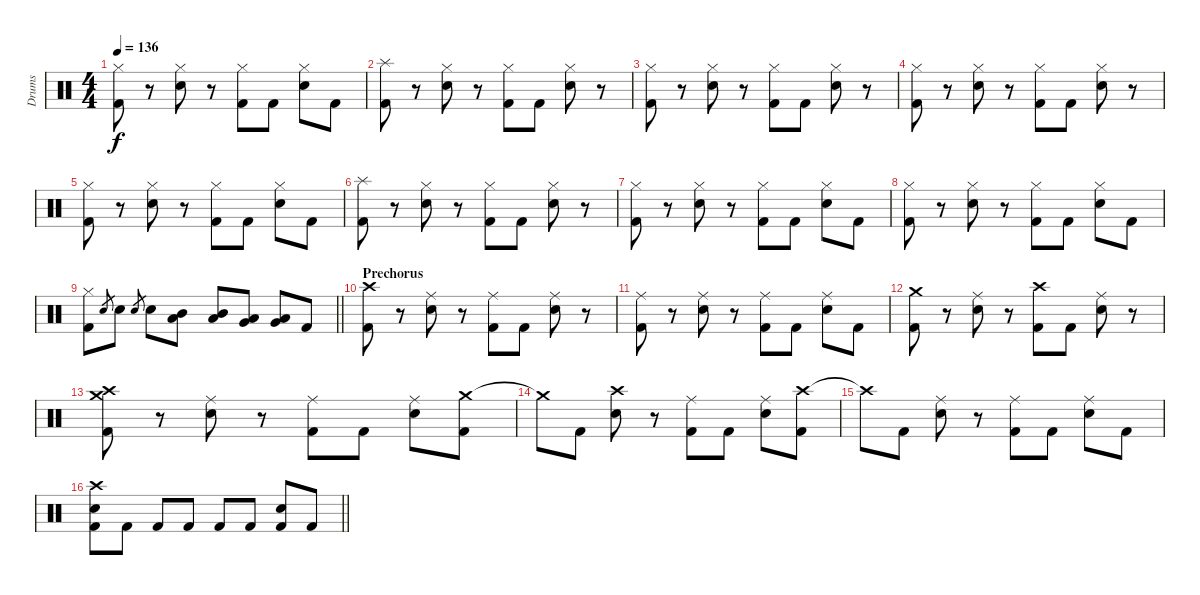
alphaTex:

\track ("Drums" "Drums") {instrument percussion}
\staff {score}
\articulation defaults
\ts (4 4)
\tempo 136
\clef neutral
\ks c
("Hi-Hat (closed)" "Kick (hit) 2").8{dy f} r.8 ("Hi-Hat (closed)" "Electric Snare (hit)").8 r.8 ("Hi-Hat (closed)" "Kick (hit) 2").8 "Kick (hit) 2".8 ("Hi-Hat (closed)" "Electric Snare (hit)").8 "Kick (hit) 2".8 |
("Splash (hit)" "Kick (hit) 2").8 r.8 ("Hi-Hat (closed)" "Electric Snare (hit)").8 r.8 ("Hi-Hat (closed)" "Kick (hit) 2").8 "Kick (hit) 2".8 ("Hi-Hat (closed)" "Electric Snare (hit)").8 r.8 |
("Hi-Hat (closed)" "Kick (hit) 2").8 r.8 ("Hi-Hat (closed)" "Electric Snare (hit)").8 r.8 ("Hi-Hat (closed)" "Kick (hit) 2").8 "Kick (hit) 2".8 ("Hi-Hat (closed)" "Electric Snare (hit)").8 r.8 |
("Hi-Hat (closed)" "Kick (hit) 2").8 r.8 ("Hi-Hat (closed)" "Electric Snare (hit)").8 r.8 ("Hi-Hat (closed)" "Kick (hit) 2").8 "Kick (hit) 2".8 ("Hi-Hat (closed)" "Electric Snare (hit)").8 r.8 |
("Hi-Hat (closed)" "Kick (hit) 2").8 r.8 ("Hi-Hat (closed)" "Electric Snare (hit)").8 r.8 ("Hi-Hat (closed)" "Kick (hit) 2").8 "Kick (hit) 2".8 ("Hi-Hat (closed)" "Electric Snare (hit)").8 "Kick (hit) 2".8 |
("Splash (hit)" "Kick (hit) 2").8 r.8 ("Hi-Hat (closed)" "Electric Snare (hit)").8 r.8 ("Hi-Hat (closed)" "Kick (hit) 2").8 "Kick (hit) 2".8 ("Hi-Hat (closed)" "Electric Snare (hit)").8 r.8 |
("Hi-Hat (closed)" "Kick (hit) 2").8 r.8 ("Hi-Hat (closed)" "Electric Snare (hit)").8 r.8 ("Hi-Hat (closed)" "Kick (hit) 2").8 "Kick (hit) 2".8 ("Hi-Hat (closed)" "Electric Snare (hit)").8 "Kick (hit) 2".8 |
("Hi-Hat (closed)" "Kick (hit) 2").8 r.8 ("Hi-Hat (closed)" "Electric Snare (hit)").8 r.8 ("Hi-Hat (closed)" "Kick (hit) 2").8 "Kick (hit) 2".8 ("Hi-Hat (closed)" "Electric Snare (hit)").8 "Kick (hit) 2".8 |
\barLineRight lightlight
("Hi-Hat (closed)" "Kick (hit) 2").8 "Electric Snare (hit)".8{gr} "Electric Snare (hit)".8 "Electric Snare (hit)".8{gr} "Electric Snare (hit)".8 ("Mid Tom (hit)" "Low Tom (hit)").8 ("Mid Tom (hit)" "Low Tom (hit)").8 ("Low Tom (hit)" "Very Low Tom (hit)").8 ("Low Tom (hit)" "Very Low Tom (hit)").8 "Kick (hit) 2".8 |
\section ("" "Prechorus")
("Crash high (hit)" "Kick (hit) 2").8 r.8 ("Ride (middle)" "Electric Snare (hit)").8 r.8 ("Ride (middle)" "Kick (hit) 2").8 "Kick (hit) 2".8 ("Ride (middle)" "Electric Snare (hit)").8 r.8 |
("Ride (middle)" "Kick (hit) 2").8 r.8 ("Ride (middle)" "Electric Snare (hit)").8 r.8 ("Ride (middle)" "Kick (hit) 2").8 "Kick (hit) 2".8 ("Ride (middle)" "Electric Snare (hit)").8 "Kick (hit) 2".8 |
("Crash medium (hit)" "Kick (hit) 2").8 r.8 ("Ride (middle)" "Electric Snare (hit)").8 r.8 ("Crash high (hit)" "Kick (hit) 2").8 "Kick (hit) 2".8 ("Ride (middle)" "Electric Snare (hit)").8 r.8 |
("Crash high (hit)" "Crash medium (hit)" "Kick (hit) 2").8 r.8 ("Ride (middle)" "Electric Snare (hit)").8 r.8 ("Ride (middle)" "Kick (hit) 2").8 "Kick (hit) 2".8 ("Ride (middle)" "Electric Snare (hit)").8 ("Crash medium (hit)" "Kick (hit) 2").8 |
"Crash medium (hit)"{t}.8 "Kick (hit) 2".8 ("Crash high (hit)" "Electric Snare (hit)").8 r.8 ("Ride (middle)" "Kick (hit) 2").8 "Kick (hit) 2".8 ("Ride (middle)" "Electric Snare (hit)").8 ("Crash high (hit)" "Kick (hit) 2").8 |
"Crash high (hit)"{t}.8 "Kick (hit) 2".8 ("Ride (middle)" "Electric Snare (hit)").8 r.8 ("Ride (middle)" "Kick (hit) 2").8 "Kick (hit) 2".8 ("Ride (middle)" "Electric Snare (hit)").8 "Kick (hit) 2".8 |
\barLineRight lightlight
("Crash high (hit)" "Electric Snare (hit)" "Kick (hit) 2").8 "Kick (hit) 2".8 "Kick (hit) 2".8 "Kick (hit) 2".8 "Kick (hit) 2".8 "Kick (hit) 2".8 ("Electric Snare (hit)" "Kick (hit) 2").8 "Kick (hit) 2".8
